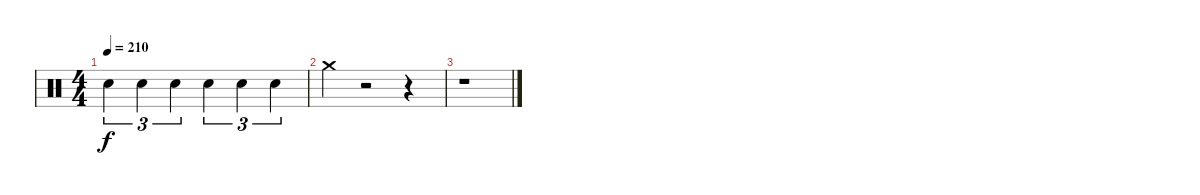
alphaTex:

\track "" {instrument percussion}
\staff {score}
\articulation defaults
\ts (4 4)
\tempo 210
\clef neutral
\ks c "Snare (hit) 2".4{tu (3 2) dy f} "Snare (hit) 2".4{tu (3 2)} "Snare (hit) 2".4{tu (3 2)} "Snare (hit) 2".4{tu (3 2)} "Snare (hit) 2".4{tu (3 2)} "Snare (hit) 2".4{tu (3 2)}
|
"Crash medium (hit)".4 r.2 r.4 |
r.1
